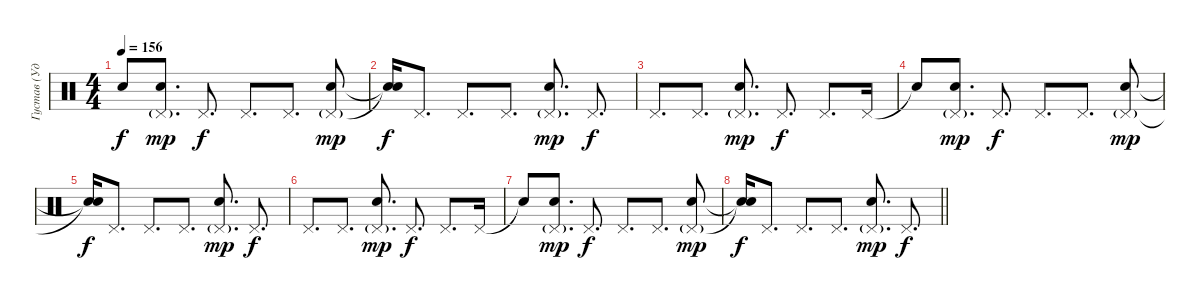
\track ("Густав (Ударные)" "Густав (Уд") {instrument percussion}
\staff {score}
\articulation defaults
\ts (4 4)
\tempo 156
\clef neutral
\ks c "Snare (hit)"{t}.8{dy f}
("Pedal Hi-Hat (hit)"{g} "Electric Snare (hit)").8{d dy mp} "Pedal Hi-Hat (hit)".8{d dy f} "Pedal Hi-Hat (hit)".8{d} "Pedal Hi-Hat (hit)".8{d} ("Pedal Hi-Hat (hit)"{g} "Electric Snare (hit)").8{dy mp} |
("Snare (hit)"{t} "Snare (hit)"{t}).16{dy f volume 2} "Pedal Hi-Hat (hit)".8{d} "Pedal Hi-Hat (hit)".8{d} "Pedal Hi-Hat (hit)".8{d} ("Pedal Hi-Hat (hit)"{g} "Electric Snare (hit)").8{d dy mp} "Pedal Hi-Hat (hit)".8{d dy f} |
"Pedal Hi-Hat (hit)".8{d} "Pedal Hi-Hat (hit)".8{d} ("Pedal Hi-Hat (hit)"{g} "Electric Snare (hit)").8{d dy mp} "Pedal Hi-Hat (hit)".8{d dy f} "Pedal Hi-Hat (hit)".8{d} "Pedal Hi-Hat (hit)".16 |
"Snare (hit)"{t}.8 ("Pedal Hi-Hat (hit)"{g} "Electric Snare (hit)").8{d dy mp} "Pedal Hi-Hat (hit)".8{d dy f} "Pedal Hi-Hat (hit)".8{d} "Pedal Hi-Hat (hit)".8{d} ("Pedal Hi-Hat (hit)"{g} "Electric Snare (hit)").8{dy mp} |
("Snare (hit)"{t} "Snare (hit)"{t}).16{dy f} "Pedal Hi-Hat (hit)".8{d} "Pedal Hi-Hat (hit)".8{d} "Pedal Hi-Hat (hit)".8{d} ("Pedal Hi-Hat (hit)"{g} "Electric Snare (hit)").8{d dy mp} "Pedal Hi-Hat (hit)".8{d dy f} |
"Pedal Hi-Hat (hit)".8{d} "Pedal Hi-Hat (hit)".8{d volume 0} ("Pedal Hi-Hat (hit)"{g} "Electric Snare (hit)").8{d dy mp} "Pedal Hi-Hat (hit)".8{d dy f} "Pedal Hi-Hat (hit)".8{d} "Pedal Hi-Hat (hit)".16 |
"Snare (hit)"{t}.8 ("Pedal Hi-Hat (hit)"{g} "Electric Snare (hit)").8{d dy mp} "Pedal Hi-Hat (hit)".8{d dy f} "Pedal Hi-Hat (hit)".8{d} "Pedal Hi-Hat (hit)".8{d} ("Pedal Hi-Hat (hit)"{g} "Electric Snare (hit)").8{dy mp} |
\barLineRight lightlight
("Snare (hit)"{t} "Snare (hit)"{t}).16{dy f} "Pedal Hi-Hat (hit)".8{d} "Pedal Hi-Hat (hit)".8{d} "Pedal Hi-Hat (hit)".8{d} ("Pedal Hi-Hat (hit)"{g} "Electric Snare (hit)").8{d dy mp} "Pedal Hi-Hat (hit)".8{d dy f}
